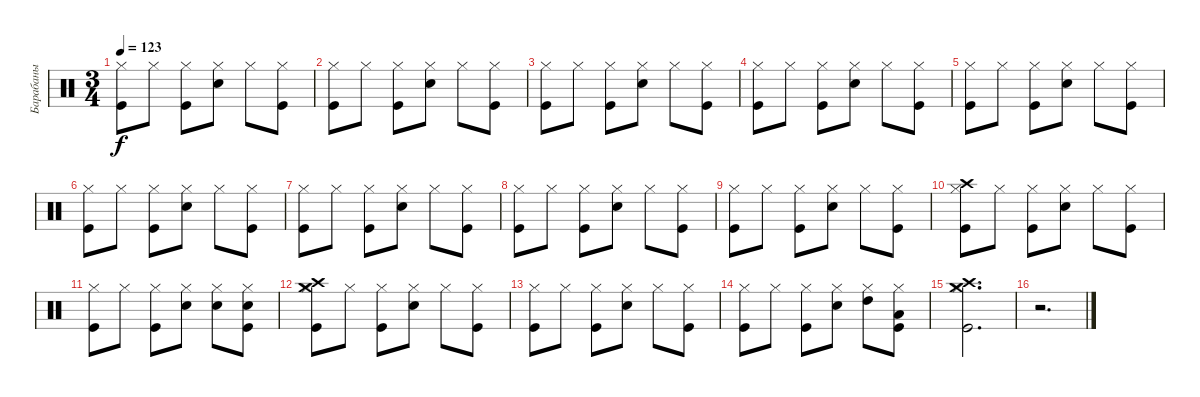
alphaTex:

\track ("Барабаны" "Барабаны") {instrument percussion}
\staff {score}
\articulation defaults
\ts (3 4)
\tempo 123
\clef neutral
\ks c
("Kick (hit)" "Hi-Hat (closed)").8{dy f} "Hi-Hat (closed)".8 ("Kick (hit)" "Hi-Hat (closed)").8 ("Snare (hit) 2" "Hi-Hat (closed)").8 "Hi-Hat (closed)".8 ("Kick (hit)" "Hi-Hat (closed)").8 |
("Kick (hit)" "Hi-Hat (closed)").8 "Hi-Hat (closed)".8 ("Kick (hit)" "Hi-Hat (closed)").8 ("Snare (hit) 2" "Hi-Hat (closed)").8 "Hi-Hat (closed)".8 ("Kick (hit)" "Hi-Hat (closed)").8 |
("Kick (hit)" "Hi-Hat (closed)").8 "Hi-Hat (closed)".8 ("Kick (hit)" "Hi-Hat (closed)").8 ("Snare (hit) 2" "Hi-Hat (closed)").8 "Hi-Hat (closed)".8 ("Kick (hit)" "Hi-Hat (closed)").8 |
("Kick (hit)" "Hi-Hat (closed)").8 "Hi-Hat (closed)".8 ("Kick (hit)" "Hi-Hat (closed)").8 ("Snare (hit) 2" "Hi-Hat (closed)").8 "Hi-Hat (closed)".8 ("Kick (hit)" "Hi-Hat (closed)").8 |
("Kick (hit)" "Hi-Hat (closed)").8 "Hi-Hat (closed)".8 ("Kick (hit)" "Hi-Hat (closed)").8 ("Snare (hit) 2" "Hi-Hat (closed)").8 "Hi-Hat (closed)".8 ("Kick (hit)" "Hi-Hat (closed)").8 |
("Kick (hit)" "Hi-Hat (closed)").8 "Hi-Hat (closed)".8 ("Kick (hit)" "Hi-Hat (closed)").8 ("Snare (hit) 2" "Hi-Hat (closed)").8 "Hi-Hat (closed)".8 ("Kick (hit)" "Hi-Hat (closed)").8 |
("Kick (hit)" "Hi-Hat (closed)").8 "Hi-Hat (closed)".8 ("Kick (hit)" "Hi-Hat (closed)").8 ("Snare (hit) 2" "Hi-Hat (closed)").8 "Hi-Hat (closed)".8 ("Kick (hit)" "Hi-Hat (closed)").8 |
("Kick (hit)" "Hi-Hat (closed)").8 "Hi-Hat (closed)".8 ("Kick (hit)" "Hi-Hat (closed)").8 ("Snare (hit) 2" "Hi-Hat (closed)").8 "Hi-Hat (closed)".8 ("Kick (hit)" "Hi-Hat (closed)").8 |
("Kick (hit)" "Hi-Hat (closed)").8 "Hi-Hat (closed)".8 ("Kick (hit)" "Hi-Hat (closed)").8 ("Snare (hit) 2" "Hi-Hat (closed)").8 "Hi-Hat (closed)".8 ("Kick (hit)" "Hi-Hat (closed)").8 |
("Kick (hit)" "Hi-Hat (closed)" "Crash high (hit)").8 "Hi-Hat (closed)".8 ("Kick (hit)" "Hi-Hat (closed)").8 ("Snare (hit) 2" "Hi-Hat (closed)").8 "Hi-Hat (closed)".8 ("Kick (hit)" "Hi-Hat (closed)").8 |
("Kick (hit)" "Hi-Hat (closed)").8 "Hi-Hat (closed)".8 ("Kick (hit)" "Hi-Hat (closed)").8 ("Snare (hit) 2" "Hi-Hat (closed)").8 ("Snare (hit) 2" "Hi-Hat (closed)").8 ("Kick (hit)" "Snare (hit) 2" "Hi-Hat (closed)").8 |
("Kick (hit)" "Hi-Hat (closed)" "Crash high (hit)" "Crash medium (hit)").8 "Hi-Hat (closed)".8 ("Kick (hit)" "Hi-Hat (closed)").8 ("Snare (hit) 2" "Hi-Hat (closed)").8 "Hi-Hat (closed)".8 ("Kick (hit)" "Hi-Hat (closed)").8 |
("Kick (hit)" "Hi-Hat (closed)").8 "Hi-Hat (closed)".8 ("Kick (hit)" "Hi-Hat (closed)").8 ("Snare (hit) 2" "Hi-Hat (closed)").8 "Hi-Hat (closed)".8 ("Kick (hit)" "Hi-Hat (closed)").8 |
("Kick (hit)" "Hi-Hat (closed)").8 "Hi-Hat (closed)".8 ("Kick (hit)" "Hi-Hat (closed)").8 ("Snare (hit) 2" "Hi-Hat (closed)").8 ("Hi-Hat (closed)" "High Tom (hit)").8 ("Kick (hit)" "Hi-Hat (closed)" "Low Floor Tom (hit)").8 |
("Kick (hit)" "Hi-Hat (closed)" "Crash high (hit)" "Crash medium (hit)").2{d} |
r.2{d}
